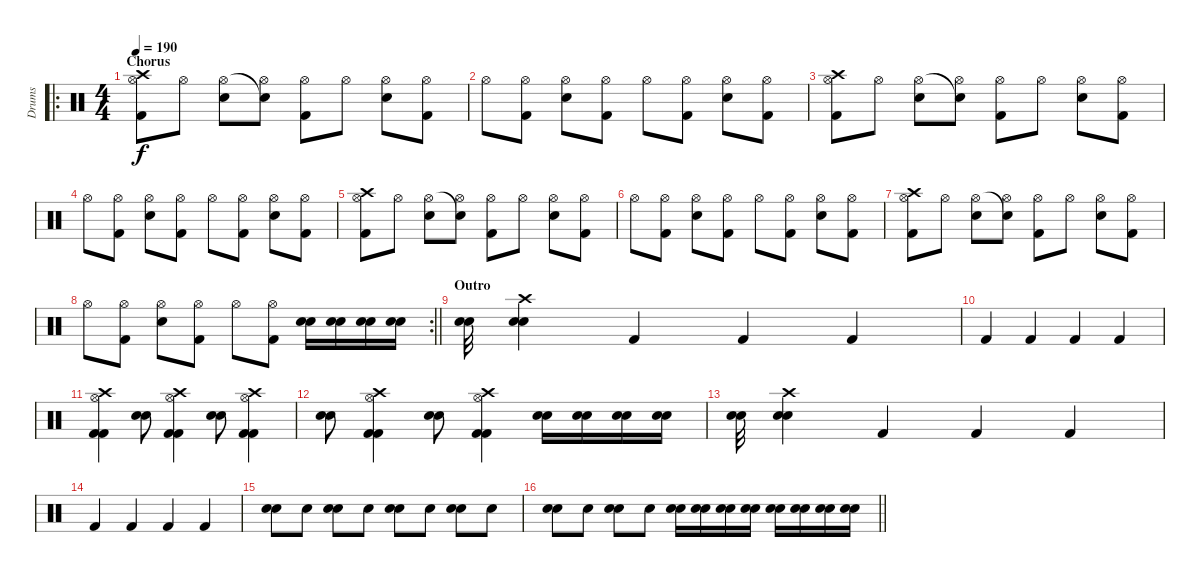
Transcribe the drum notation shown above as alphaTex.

\track ("Drums" "Drums") {instrument percussion}
\staff {score}
\articulation defaults
\ro
\ts (4 4)
\section ("" "Chorus")
\tempo 190
\clef neutral
\ks c
("Crash high (hit)" "Hi-Hat (open)" "Kick (hit) 2").8{dy f} "Hi-Hat (open)".8 ("Hi-Hat (open)" "Electric Snare (hit)").8 ("Snare (hit)"{t} "Hi-Hat (open)").8 ("Hi-Hat (open)" "Kick (hit) 2").8 "Hi-Hat (open)".8 ("Hi-Hat (open)" "Electric Snare (hit)").8 ("Hi-Hat (open)" "Kick (hit) 2").8 |
"Hi-Hat (open)".8 ("Hi-Hat (open)" "Kick (hit) 2").8 ("Hi-Hat (open)" "Electric Snare (hit)").8 ("Hi-Hat (open)" "Kick (hit) 2").8 "Hi-Hat (open)".8 ("Hi-Hat (open)" "Kick (hit) 2").8 ("Hi-Hat (open)" "Electric Snare (hit)").8 ("Hi-Hat (open)" "Kick (hit) 2").8 |
("Crash high (hit)" "Hi-Hat (open)" "Kick (hit) 2").8 "Hi-Hat (open)".8 ("Hi-Hat (open)" "Electric Snare (hit)").8 ("Snare (hit)"{t} "Hi-Hat (open)").8 ("Hi-Hat (open)" "Kick (hit) 2").8 "Hi-Hat (open)".8 ("Hi-Hat (open)" "Electric Snare (hit)").8 ("Hi-Hat (open)" "Kick (hit) 2").8 |
"Hi-Hat (open)".8 ("Hi-Hat (open)" "Kick (hit) 2").8 ("Hi-Hat (open)" "Electric Snare (hit)").8 ("Hi-Hat (open)" "Kick (hit) 2").8 "Hi-Hat (open)".8 ("Hi-Hat (open)" "Kick (hit) 2").8 ("Hi-Hat (open)" "Electric Snare (hit)").8 ("Hi-Hat (open)" "Kick (hit) 2").8 |
("Crash high (hit)" "Hi-Hat (open)" "Kick (hit) 2").8 "Hi-Hat (open)".8 ("Hi-Hat (open)" "Electric Snare (hit)").8 ("Snare (hit)"{t} "Hi-Hat (open)").8 ("Hi-Hat (open)" "Kick (hit) 2").8 "Hi-Hat (open)".8 ("Hi-Hat (open)" "Electric Snare (hit)").8 ("Hi-Hat (open)" "Kick (hit) 2").8 |
"Hi-Hat (open)".8 ("Hi-Hat (open)" "Kick (hit) 2").8 ("Hi-Hat (open)" "Electric Snare (hit)").8 ("Hi-Hat (open)" "Kick (hit) 2").8 "Hi-Hat (open)".8 ("Hi-Hat (open)" "Kick (hit) 2").8 ("Hi-Hat (open)" "Electric Snare (hit)").8 ("Hi-Hat (open)" "Kick (hit) 2").8 |
("Crash high (hit)" "Hi-Hat (open)" "Kick (hit) 2").8 "Hi-Hat (open)".8 ("Hi-Hat (open)" "Electric Snare (hit)").8 ("Snare (hit)"{t} "Hi-Hat (open)").8 ("Hi-Hat (open)" "Kick (hit) 2").8 "Hi-Hat (open)".8 ("Hi-Hat (open)" "Electric Snare (hit)").8 ("Hi-Hat (open)" "Kick (hit) 2").8 |
\rc 2
\barLineRight lightlight "Hi-Hat (open)".8
("Hi-Hat (open)" "Kick (hit) 2").8 ("Hi-Hat (open)" "Electric Snare (hit)").8 ("Hi-Hat (open)" "Kick (hit) 2").8 "Hi-Hat (open)".8 ("Hi-Hat (open)" "Kick (hit) 2").8 ("Snare (hit) 2" "Electric Snare (hit)").16 ("Snare (hit) 2" "Electric Snare (hit)").16 ("Snare (hit) 2" "Electric Snare (hit)").16 ("Snare (hit) 2" "Electric Snare (hit)").16 |
\section ("" "Outro")
("Snare (hit) 2" "Electric Snare (hit)").32 ("Crash high (hit)" "Electric Snare (hit)" "Snare (hit) 2").4 "Kick (hit) 2".4 "Kick (hit) 2".4 "Kick (hit) 2".4 |
"Kick (hit) 2".4 "Kick (hit) 2".4 "Kick (hit) 2".4 "Kick (hit) 2".4 |
("Hi-Hat (open)" "Crash high (hit)" "Kick (hit) 2" "Kick (hit) 2").4 ("Electric Snare (hit)" "Snare (hit) 2").8 ("Hi-Hat (open)" "Crash high (hit)" "Kick (hit) 2" "Kick (hit) 2").4 ("Electric Snare (hit)" "Snare (hit) 2").8 ("Hi-Hat (open)" "Crash high (hit)" "Kick (hit) 2" "Kick (hit) 2").4 |
("Electric Snare (hit)" "Snare (hit) 2").8 ("Hi-Hat (open)" "Crash high (hit)" "Kick (hit) 2" "Kick (hit) 2").4 ("Electric Snare (hit)" "Snare (hit) 2").8 ("Hi-Hat (open)" "Crash high (hit)" "Kick (hit) 2" "Kick (hit) 2").4 ("Snare (hit) 2" "Electric Snare (hit)").16 ("Snare (hit) 2" "Electric Snare (hit)").16 ("Snare (hit) 2" "Electric Snare (hit)").16 ("Snare (hit) 2" "Electric Snare (hit)").16 |
("Snare (hit) 2" "Electric Snare (hit)").32 ("Crash high (hit)" "Electric Snare (hit)" "Snare (hit) 2").4 "Kick (hit) 2".4 "Kick (hit) 2".4 "Kick (hit) 2".4 |
"Kick (hit) 2".4 "Kick (hit) 2".4 "Kick (hit) 2".4 "Kick (hit) 2".4 |
("Snare (hit) 2" "Electric Snare (hit)").8 "Electric Snare (hit)".8 ("Snare (hit) 2" "Electric Snare (hit)").8 "Electric Snare (hit)".8 ("Snare (hit) 2" "Electric Snare (hit)").8 "Electric Snare (hit)".8 ("Snare (hit) 2" "Electric Snare (hit)").8 "Electric Snare (hit)".8 |
\barLineRight lightlight
("Electric Snare (hit)" "Snare (hit) 2").8 "Electric Snare (hit)".8 ("Snare (hit) 2" "Electric Snare (hit)").8 "Electric Snare (hit)".8 ("Snare (hit) 2" "Electric Snare (hit)").16 ("Snare (hit) 2" "Electric Snare (hit)").16 ("Snare (hit) 2" "Electric Snare (hit)").16 ("Snare (hit) 2" "Electric Snare (hit)").16 ("Snare (hit) 2" "Electric Snare (hit)").16 ("Snare (hit) 2" "Electric Snare (hit)").16 ("Snare (hit) 2" "Electric Snare (hit)").16 ("Snare (hit) 2" "Electric Snare (hit)").16
